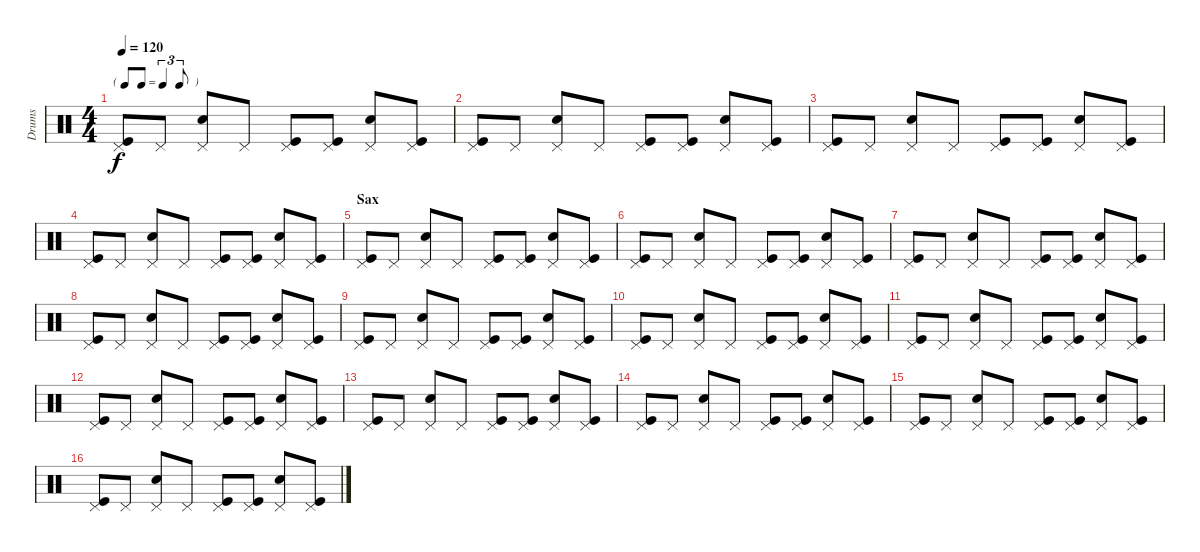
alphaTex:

\track ("Drums" "Drums") {instrument percussion}
\staff {score}
\articulation defaults
\ts (4 4)
\tf triplet8th
\tempo 120
\clef neutral
\ks c
("Pedal Hi-Hat (hit)" "Kick (hit)").8{dy f} "Pedal Hi-Hat (hit)".8 ("Pedal Hi-Hat (hit)" "Snare (hit) 2").8 "Pedal Hi-Hat (hit)".8 ("Pedal Hi-Hat (hit)" "Kick (hit)").8 ("Pedal Hi-Hat (hit)" "Kick (hit)").8 ("Pedal Hi-Hat (hit)" "Snare (hit) 2").8 ("Pedal Hi-Hat (hit)" "Kick (hit)").8 |
("Pedal Hi-Hat (hit)" "Kick (hit)").8 "Pedal Hi-Hat (hit)".8 ("Pedal Hi-Hat (hit)" "Snare (hit) 2").8 "Pedal Hi-Hat (hit)".8 ("Pedal Hi-Hat (hit)" "Kick (hit)").8 ("Pedal Hi-Hat (hit)" "Kick (hit)").8 ("Pedal Hi-Hat (hit)" "Snare (hit) 2").8 ("Pedal Hi-Hat (hit)" "Kick (hit)").8 |
("Pedal Hi-Hat (hit)" "Kick (hit)").8 "Pedal Hi-Hat (hit)".8 ("Pedal Hi-Hat (hit)" "Snare (hit) 2").8 "Pedal Hi-Hat (hit)".8 ("Pedal Hi-Hat (hit)" "Kick (hit)").8 ("Pedal Hi-Hat (hit)" "Kick (hit)").8 ("Pedal Hi-Hat (hit)" "Snare (hit) 2").8 ("Pedal Hi-Hat (hit)" "Kick (hit)").8 |
("Pedal Hi-Hat (hit)" "Kick (hit)").8 "Pedal Hi-Hat (hit)".8 ("Pedal Hi-Hat (hit)" "Snare (hit) 2").8 "Pedal Hi-Hat (hit)".8 ("Pedal Hi-Hat (hit)" "Kick (hit)").8 ("Pedal Hi-Hat (hit)" "Kick (hit)").8 ("Pedal Hi-Hat (hit)" "Snare (hit) 2").8 ("Pedal Hi-Hat (hit)" "Kick (hit)").8 |
\section ("" "Sax")
("Pedal Hi-Hat (hit)" "Kick (hit)").8 "Pedal Hi-Hat (hit)".8 ("Pedal Hi-Hat (hit)" "Snare (hit) 2").8 "Pedal Hi-Hat (hit)".8 ("Pedal Hi-Hat (hit)" "Kick (hit)").8 ("Pedal Hi-Hat (hit)" "Kick (hit)").8 ("Pedal Hi-Hat (hit)" "Snare (hit) 2").8 ("Pedal Hi-Hat (hit)" "Kick (hit)").8 |
("Pedal Hi-Hat (hit)" "Kick (hit)").8 "Pedal Hi-Hat (hit)".8 ("Pedal Hi-Hat (hit)" "Snare (hit) 2").8 "Pedal Hi-Hat (hit)".8 ("Pedal Hi-Hat (hit)" "Kick (hit)").8 ("Pedal Hi-Hat (hit)" "Kick (hit)").8 ("Pedal Hi-Hat (hit)" "Snare (hit) 2").8 ("Pedal Hi-Hat (hit)" "Kick (hit)").8 |
("Pedal Hi-Hat (hit)" "Kick (hit)").8 "Pedal Hi-Hat (hit)".8 ("Pedal Hi-Hat (hit)" "Snare (hit) 2").8 "Pedal Hi-Hat (hit)".8 ("Pedal Hi-Hat (hit)" "Kick (hit)").8 ("Pedal Hi-Hat (hit)" "Kick (hit)").8 ("Pedal Hi-Hat (hit)" "Snare (hit) 2").8 ("Pedal Hi-Hat (hit)" "Kick (hit)").8 |
("Pedal Hi-Hat (hit)" "Kick (hit)").8 "Pedal Hi-Hat (hit)".8 ("Pedal Hi-Hat (hit)" "Snare (hit) 2").8 "Pedal Hi-Hat (hit)".8 ("Pedal Hi-Hat (hit)" "Kick (hit)").8 ("Pedal Hi-Hat (hit)" "Kick (hit)").8 ("Pedal Hi-Hat (hit)" "Snare (hit) 2").8 ("Pedal Hi-Hat (hit)" "Kick (hit)").8 |
("Pedal Hi-Hat (hit)" "Kick (hit)").8 "Pedal Hi-Hat (hit)".8 ("Pedal Hi-Hat (hit)" "Snare (hit) 2").8 "Pedal Hi-Hat (hit)".8 ("Pedal Hi-Hat (hit)" "Kick (hit)").8 ("Pedal Hi-Hat (hit)" "Kick (hit)").8 ("Pedal Hi-Hat (hit)" "Snare (hit) 2").8 ("Pedal Hi-Hat (hit)" "Kick (hit)").8 |
("Pedal Hi-Hat (hit)" "Kick (hit)").8 "Pedal Hi-Hat (hit)".8 ("Pedal Hi-Hat (hit)" "Snare (hit) 2").8 "Pedal Hi-Hat (hit)".8 ("Pedal Hi-Hat (hit)" "Kick (hit)").8 ("Pedal Hi-Hat (hit)" "Kick (hit)").8 ("Pedal Hi-Hat (hit)" "Snare (hit) 2").8 ("Pedal Hi-Hat (hit)" "Kick (hit)").8 |
("Pedal Hi-Hat (hit)" "Kick (hit)").8 "Pedal Hi-Hat (hit)".8 ("Pedal Hi-Hat (hit)" "Snare (hit) 2").8 "Pedal Hi-Hat (hit)".8 ("Pedal Hi-Hat (hit)" "Kick (hit)").8 ("Pedal Hi-Hat (hit)" "Kick (hit)").8 ("Pedal Hi-Hat (hit)" "Snare (hit) 2").8 ("Pedal Hi-Hat (hit)" "Kick (hit)").8 |
("Pedal Hi-Hat (hit)" "Kick (hit)").8 "Pedal Hi-Hat (hit)".8 ("Pedal Hi-Hat (hit)" "Snare (hit) 2").8 "Pedal Hi-Hat (hit)".8 ("Pedal Hi-Hat (hit)" "Kick (hit)").8 ("Pedal Hi-Hat (hit)" "Kick (hit)").8 ("Pedal Hi-Hat (hit)" "Snare (hit) 2").8 ("Pedal Hi-Hat (hit)" "Kick (hit)").8 |
("Pedal Hi-Hat (hit)" "Kick (hit)").8 "Pedal Hi-Hat (hit)".8 ("Pedal Hi-Hat (hit)" "Snare (hit) 2").8 "Pedal Hi-Hat (hit)".8 ("Pedal Hi-Hat (hit)" "Kick (hit)").8 ("Pedal Hi-Hat (hit)" "Kick (hit)").8 ("Pedal Hi-Hat (hit)" "Snare (hit) 2").8 ("Pedal Hi-Hat (hit)" "Kick (hit)").8 |
("Pedal Hi-Hat (hit)" "Kick (hit)").8 "Pedal Hi-Hat (hit)".8 ("Pedal Hi-Hat (hit)" "Snare (hit) 2").8 "Pedal Hi-Hat (hit)".8 ("Pedal Hi-Hat (hit)" "Kick (hit)").8 ("Pedal Hi-Hat (hit)" "Kick (hit)").8 ("Pedal Hi-Hat (hit)" "Snare (hit) 2").8 ("Pedal Hi-Hat (hit)" "Kick (hit)").8 |
("Pedal Hi-Hat (hit)" "Kick (hit)").8 "Pedal Hi-Hat (hit)".8 ("Pedal Hi-Hat (hit)" "Snare (hit) 2").8 "Pedal Hi-Hat (hit)".8 ("Pedal Hi-Hat (hit)" "Kick (hit)").8 ("Pedal Hi-Hat (hit)" "Kick (hit)").8 ("Pedal Hi-Hat (hit)" "Snare (hit) 2").8 ("Pedal Hi-Hat (hit)" "Kick (hit)").8 |
("Pedal Hi-Hat (hit)" "Kick (hit)").8 "Pedal Hi-Hat (hit)".8 ("Pedal Hi-Hat (hit)" "Snare (hit) 2").8 "Pedal Hi-Hat (hit)".8 ("Pedal Hi-Hat (hit)" "Kick (hit)").8 ("Pedal Hi-Hat (hit)" "Kick (hit)").8 ("Pedal Hi-Hat (hit)" "Snare (hit) 2").8 ("Pedal Hi-Hat (hit)" "Kick (hit)").8
